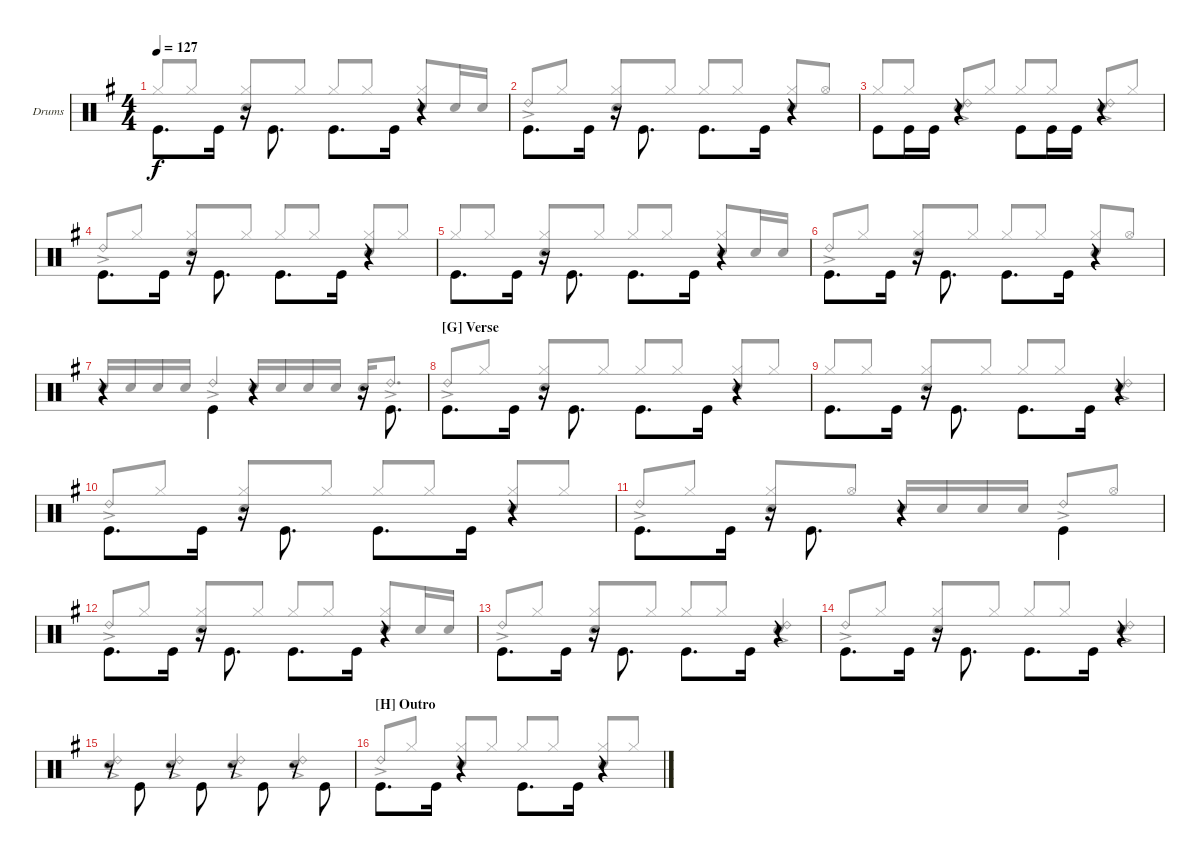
\defaultSystemsLayout 4
\bracketExtendMode groupsimilarinstruments
\firstSystemTrackNameOrientation horizontal
\otherSystemsTrackNameOrientation horizontal
\track ("Drums" "Drums") {instrument percussion}
\staff {score}
\articulation defaults
\voice
\ts (4 4)
\tempo 127
\clef neutral
\scale
1.04288
\ks g "Kick (hit)".8{d dy f beam invert} "Kick (hit)".16
r.16{beam invert} "Kick (hit)".8{d beam invert} "Kick (hit)".8{d beam invert} "Kick (hit)".16 r.4 |
\scale
0.957125 "Kick (hit)".8{d beam invert} "Kick (hit)".16 r.16{beam invert} "Kick (hit)".8{d beam invert} "Kick (hit)".8{d beam invert} "Kick (hit)".16 r.4 |
\scale
1.04288 "Kick (hit)".8{beam invert} "Kick (hit)".16 "Kick (hit)".16 r.4{beam invert} "Kick (hit)".8{beam invert} "Kick (hit)".16 "Kick (hit)".16 r.4{beam invert} |
\scale
1.07314 "Kick (hit)".8{d beam invert} "Kick (hit)".16 r.16{beam invert} "Kick (hit)".8{d beam invert} "Kick (hit)".8{d beam invert} "Kick (hit)".16 r.4 |
\scale
0.92686 "Kick (hit)".8{d beam invert} "Kick (hit)".16 r.16{beam invert} "Kick (hit)".8{d beam invert} "Kick (hit)".8{d beam invert} "Kick (hit)".16 r.4 |
\scale
1.04288 "Kick (hit)".8{d beam invert} "Kick (hit)".16 r.16{beam invert} "Kick (hit)".8{d beam invert} "Kick (hit)".8{d beam invert} "Kick (hit)".16 r.4 |
\scale
0.957125 r.4 "Kick (hit)".4{beam invert} r.4 r.16 "Kick (hit)".8{d beam invert} |
\section ("G" "Verse")
\scale
1.04288 "Kick (hit)".8{d beam invert} "Kick (hit)".16 r.16{beam invert} "Kick (hit)".8{d beam invert} "Kick (hit)".8{d beam invert} "Kick (hit)".16 r.4 |
\scale
0.957125 "Kick (hit)".8{d beam invert} "Kick (hit)".16 r.16{beam invert} "Kick (hit)".8{d beam invert} "Kick (hit)".8{d beam invert} "Kick (hit)".16 r.4 |
\scale
1.04288 "Kick (hit)".8{d beam invert} "Kick (hit)".16 r.16{beam invert} "Kick (hit)".8{d beam invert} "Kick (hit)".8{d beam invert} "Kick (hit)".16 r.4 |
\scale
0.957125 "Kick (hit)".8{d beam invert} "Kick (hit)".16 r.16{beam invert} "Kick (hit)".8{d beam invert} r.4{beam invert} "Kick (hit)".4{beam invert} |
\scale
1.04288 "Kick (hit)".8{d beam invert} "Kick (hit)".16 r.16{beam invert} "Kick (hit)".8{d beam invert} "Kick (hit)".8{d beam invert} "Kick (hit)".16 r.4 |
\scale
0.957125 "Kick (hit)".8{d beam invert} "Kick (hit)".16 r.16{beam invert} "Kick (hit)".8{d beam invert} "Kick (hit)".8{d beam invert} "Kick (hit)".16 r.4 |
\scale
1.04288 "Kick (hit)".8{d beam invert} "Kick (hit)".16 r.16{beam invert} "Kick (hit)".8{d beam invert} "Kick (hit)".8{d beam invert} "Kick (hit)".16 r.4 |
\scale
0.957125 r.8{beam invert} "Kick (hit)".8{beam invert} r.8{beam invert} "Kick (hit)".8{beam invert} r.8{beam invert} "Kick (hit)".8{beam invert} r.8{beam invert} "Kick (hit)".8{beam invert} |
\section ("H" "Outro")
\scale
1.04288 "Kick (hit)".8{d beam invert} "Kick (hit)".16 r.4 "Kick (hit)".8{d beam invert} "Kick (hit)".16 r.4
\voice
\clef neutral
\ottava regular
\simile none
\scale
1.04288
\ks g "Hi-Hat (closed)".8{dy f beam invert} "Hi-Hat (closed)".8
("Hi-Hat (closed)" "Snare (hit) 2").8{beam invert} "Hi-Hat (closed)".8 "Hi-Hat (closed)".8{beam invert} "Hi-Hat (closed)".8 ("Snare (hit) 2" "Hi-Hat (closed)").8{beam invert} "Snare (hit) 2".16 "Snare (hit) 2".16 |
\scale
0.957125 "Ride (bell) 2"{ac}.8{beam invert} "Hi-Hat (closed)".8 ("Hi-Hat (closed)" "Snare (hit) 2").8{beam invert} "Hi-Hat (closed)".8 "Hi-Hat (closed)".8{beam invert} "Hi-Hat (closed)".8 ("Hi-Hat (closed)" "Snare (hit) 2").8{beam invert} "Hi-Hat (open)".8 |
\scale
1.04288 "Hi-Hat (closed)".8{beam invert} "Hi-Hat (closed)".8 ("Snare (hit) 2" "Ride (bell) 2"{ac}).8{beam invert} "Hi-Hat (closed)".8 "Hi-Hat (closed)".8{beam invert} "Hi-Hat (closed)".8 ("Snare (hit) 2" "Ride (bell) 2"{ac}).8{beam invert} "Hi-Hat (closed)".8 |
\scale
1.07314 "Ride (bell) 2"{ac}.8{beam invert} "Hi-Hat (closed)".8 ("Hi-Hat (closed)" "Snare (hit) 2").8{beam invert} "Hi-Hat (closed)".8 "Hi-Hat (closed)".8{beam invert} "Hi-Hat (closed)".8 ("Hi-Hat (closed)" "Snare (hit) 2").8{beam invert} "Hi-Hat (closed)".8 |
\scale
0.92686 "Hi-Hat (closed)".8{beam invert} "Hi-Hat (closed)".8 ("Hi-Hat (closed)" "Snare (hit) 2").8{beam invert} "Hi-Hat (closed)".8 "Hi-Hat (closed)".8{beam invert} "Hi-Hat (closed)".8 ("Snare (hit) 2" "Hi-Hat (closed)").8{beam invert} "Snare (hit) 2".16 "Snare (hit) 2".16 |
\scale
1.04288 "Ride (bell) 2"{ac}.8{beam invert} "Hi-Hat (closed)".8 ("Hi-Hat (closed)" "Snare (hit) 2").8{beam invert} "Hi-Hat (closed)".8 "Hi-Hat (closed)".8{beam invert} "Hi-Hat (closed)".8 ("Hi-Hat (closed)" "Snare (hit) 2").8{beam invert} "Hi-Hat (open)".8 |
\scale
0.957125 "Snare (hit) 2".16{beam invert} "Snare (hit) 2".16 "Snare (hit) 2".16 "Snare (hit) 2".16 "Ride (bell) 2"{ac}.4{beam invert} "Snare (hit) 2".16{beam invert} "Snare (hit) 2".16 "Snare (hit) 2".16 "Snare (hit) 2".16 "Snare (hit) 2".16{beam invert} "Ride (bell) 2"{ac}.8{d} |
\scale
1.04288 "Ride (bell) 2"{ac}.8{beam invert} "Hi-Hat (closed)".8 ("Hi-Hat (closed)" "Snare (hit) 2").8{beam invert} "Hi-Hat (closed)".8 "Hi-Hat (closed)".8{beam invert} "Hi-Hat (closed)".8 ("Hi-Hat (closed)" "Snare (hit) 2").8{beam invert} "Hi-Hat (closed)".8 |
\scale
0.957125 "Hi-Hat (closed)".8{beam invert} "Hi-Hat (closed)".8 ("Hi-Hat (closed)" "Snare (hit) 2").8{beam invert} "Hi-Hat (closed)".8 "Hi-Hat (closed)".8{beam invert} "Hi-Hat (closed)".8 ("Ride (bell) 2"{ac} "Snare (hit) 2").4{beam invert} |
\scale
1.04288 "Ride (bell) 2"{ac}.8{beam invert} "Hi-Hat (closed)".8 ("Hi-Hat (closed)" "Snare (hit) 2").8{beam invert} "Hi-Hat (closed)".8 "Hi-Hat (closed)".8{beam invert} "Hi-Hat (closed)".8 ("Hi-Hat (closed)" "Snare (hit) 2").8{beam invert} "Hi-Hat (closed)".8 |
\scale
0.957125 "Ride (bell) 2"{ac}.8{beam invert} "Hi-Hat (closed)".8 ("Hi-Hat (closed)" "Snare (hit) 2").8{beam invert} "Hi-Hat (open)".8 "Snare (hit) 2".16{beam invert} "Snare (hit) 2".16 "Snare (hit) 2".16 "Snare (hit) 2".16 "Ride (bell) 2"{ac}.8{beam invert} "Hi-Hat (open)".8 |
\scale
1.04288 "Ride (bell) 2"{ac}.8{beam invert} "Hi-Hat (closed)".8 ("Hi-Hat (closed)" "Snare (hit) 2").8{beam invert} "Hi-Hat (closed)".8 "Hi-Hat (closed)".8{beam invert} "Hi-Hat (closed)".8 ("Snare (hit) 2" "Hi-Hat (closed)").8{beam invert} "Snare (hit) 2".16 "Snare (hit) 2".16 |
\scale
0.957125 "Ride (bell) 2"{ac}.8{beam invert} "Hi-Hat (closed)".8 ("Hi-Hat (closed)" "Snare (hit) 2").8{beam invert} "Hi-Hat (closed)".8 "Hi-Hat (closed)".8{beam invert} "Hi-Hat (closed)".8 ("Snare (hit) 2" "Ride (bell) 2"{ac}).4{beam invert} |
\scale
1.04288 "Ride (bell) 2"{ac}.8{beam invert} "Hi-Hat (closed)".8 ("Hi-Hat (closed)" "Snare (hit) 2").8{beam invert} "Hi-Hat (closed)".8 "Hi-Hat (closed)".8{beam invert} "Hi-Hat (closed)".8 ("Ride (bell) 2"{ac} "Snare (hit) 2").4{beam invert} |
\scale
0.957125 ("Ride (bell) 2"{ac} "Snare (hit) 2").4{beam invert} ("Ride (bell) 2"{ac} "Snare (hit) 2").4{beam invert} ("Ride (bell) 2"{ac} "Snare (hit) 2").4{beam invert} ("Ride (bell) 2"{ac} "Snare (hit) 2").4{beam invert} |
\scale
1.04288 "Ride (bell) 2"{ac}.8{beam invert} "Hi-Hat (closed)".8 ("Hi-Hat (closed)" "Snare (hit) 2").8{beam invert} "Hi-Hat (closed)".8 "Hi-Hat (closed)".8{beam invert} "Hi-Hat (closed)".8 ("Hi-Hat (closed)" "Snare (hit) 2").8{beam invert} "Hi-Hat (closed)".8
